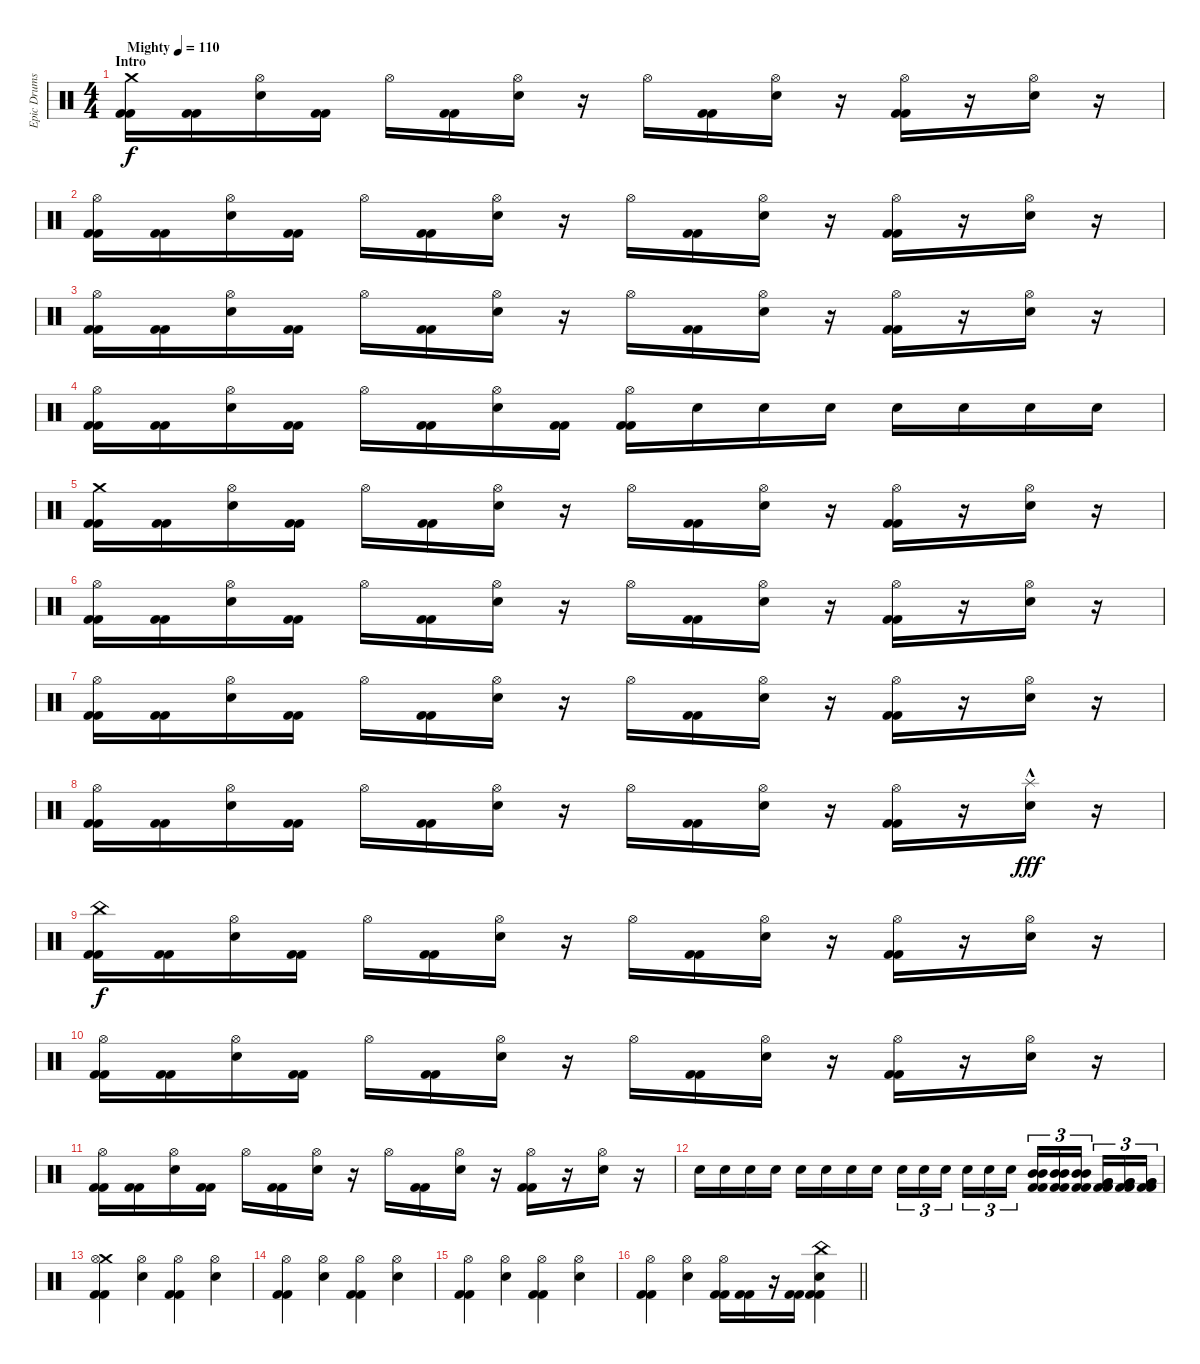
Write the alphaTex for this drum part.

\track ("Epic Drums" "Epic Drums") {instrument percussion}
\staff {score}
\articulation defaults
\ts (4 4)
\section ("" "Intro")
\tempo (110 "Mighty")
\clef neutral
\ks c
("Crash medium (hit)" "Kick (hit) 2" "Kick (hit) 2").16{dy f} ("Kick (hit) 2" "Kick (hit) 2").16 ("Hi-Hat (open)" "Electric Snare (hit)").16 ("Kick (hit) 2" "Kick (hit) 2").16 "Hi-Hat (open)".16 ("Kick (hit) 2" "Kick (hit) 2").16 ("Hi-Hat (open)" "Electric Snare (hit)").16 r.16 "Hi-Hat (open)".16 ("Kick (hit) 2" "Kick (hit) 2").16 ("Hi-Hat (open)" "Electric Snare (hit)").16 r.16 ("Hi-Hat (open)" "Kick (hit) 2" "Kick (hit) 2").16 r.16 ("Hi-Hat (open)" "Electric Snare (hit)").16 r.16 |
("Hi-Hat (open)" "Kick (hit) 2" "Kick (hit) 2").16 ("Kick (hit) 2" "Kick (hit) 2").16 ("Hi-Hat (open)" "Electric Snare (hit)").16 ("Kick (hit) 2" "Kick (hit) 2").16 "Hi-Hat (open)".16 ("Kick (hit) 2" "Kick (hit) 2").16 ("Hi-Hat (open)" "Electric Snare (hit)").16 r.16 "Hi-Hat (open)".16 ("Kick (hit) 2" "Kick (hit) 2").16 ("Hi-Hat (open)" "Electric Snare (hit)").16 r.16 ("Hi-Hat (open)" "Kick (hit) 2" "Kick (hit) 2").16 r.16 ("Hi-Hat (open)" "Electric Snare (hit)").16 r.16 |
("Hi-Hat (open)" "Kick (hit) 2" "Kick (hit) 2").16 ("Kick (hit) 2" "Kick (hit) 2").16 ("Hi-Hat (open)" "Electric Snare (hit)").16 ("Kick (hit) 2" "Kick (hit) 2").16 "Hi-Hat (open)".16 ("Kick (hit) 2" "Kick (hit) 2").16 ("Hi-Hat (open)" "Electric Snare (hit)").16 r.16 "Hi-Hat (open)".16 ("Kick (hit) 2" "Kick (hit) 2").16 ("Hi-Hat (open)" "Electric Snare (hit)").16 r.16 ("Hi-Hat (open)" "Kick (hit) 2" "Kick (hit) 2").16 r.16 ("Hi-Hat (open)" "Electric Snare (hit)").16 r.16 |
("Hi-Hat (open)" "Kick (hit) 2" "Kick (hit) 2").16 ("Kick (hit) 2" "Kick (hit) 2").16 ("Hi-Hat (open)" "Electric Snare (hit)").16 ("Kick (hit) 2" "Kick (hit) 2").16 "Hi-Hat (open)".16 ("Kick (hit) 2" "Kick (hit) 2").16 ("Hi-Hat (open)" "Electric Snare (hit)").16 ("Kick (hit) 2" "Kick (hit) 2").16 ("Hi-Hat (open)" "Kick (hit) 2" "Kick (hit) 2").16 "Electric Snare (hit)".16 "Electric Snare (hit)".16 "Electric Snare (hit)".16 "Electric Snare (hit)".16 "Electric Snare (hit)".16 "Electric Snare (hit)".16 "Electric Snare (hit)".16 |
("Crash medium (hit)" "Kick (hit) 2" "Kick (hit) 2").16 ("Kick (hit) 2" "Kick (hit) 2").16 ("Hi-Hat (open)" "Electric Snare (hit)").16 ("Kick (hit) 2" "Kick (hit) 2").16 "Hi-Hat (open)".16 ("Kick (hit) 2" "Kick (hit) 2").16 ("Hi-Hat (open)" "Electric Snare (hit)").16 r.16 "Hi-Hat (open)".16 ("Kick (hit) 2" "Kick (hit) 2").16 ("Hi-Hat (open)" "Electric Snare (hit)").16 r.16 ("Hi-Hat (open)" "Kick (hit) 2" "Kick (hit) 2").16 r.16 ("Hi-Hat (open)" "Electric Snare (hit)").16 r.16 |
("Hi-Hat (open)" "Kick (hit) 2" "Kick (hit) 2").16 ("Kick (hit) 2" "Kick (hit) 2").16 ("Hi-Hat (open)" "Electric Snare (hit)").16 ("Kick (hit) 2" "Kick (hit) 2").16 "Hi-Hat (open)".16 ("Kick (hit) 2" "Kick (hit) 2").16 ("Hi-Hat (open)" "Electric Snare (hit)").16 r.16 "Hi-Hat (open)".16 ("Kick (hit) 2" "Kick (hit) 2").16 ("Hi-Hat (open)" "Electric Snare (hit)").16 r.16 ("Hi-Hat (open)" "Kick (hit) 2" "Kick (hit) 2").16 r.16 ("Hi-Hat (open)" "Electric Snare (hit)").16 r.16 |
("Hi-Hat (open)" "Kick (hit) 2" "Kick (hit) 2").16 ("Kick (hit) 2" "Kick (hit) 2").16 ("Hi-Hat (open)" "Electric Snare (hit)").16 ("Kick (hit) 2" "Kick (hit) 2").16 "Hi-Hat (open)".16 ("Kick (hit) 2" "Kick (hit) 2").16 ("Hi-Hat (open)" "Electric Snare (hit)").16 r.16 "Hi-Hat (open)".16 ("Kick (hit) 2" "Kick (hit) 2").16 ("Hi-Hat (open)" "Electric Snare (hit)").16 r.16 ("Hi-Hat (open)" "Kick (hit) 2" "Kick (hit) 2").16 r.16 ("Hi-Hat (open)" "Electric Snare (hit)").16 r.16 |
("Hi-Hat (open)" "Kick (hit) 2" "Kick (hit) 2").16 ("Kick (hit) 2" "Kick (hit) 2").16 ("Hi-Hat (open)" "Electric Snare (hit)").16 ("Kick (hit) 2" "Kick (hit) 2").16 "Hi-Hat (open)".16 ("Kick (hit) 2" "Kick (hit) 2").16 ("Hi-Hat (open)" "Electric Snare (hit)").16 r.16 "Hi-Hat (open)".16 ("Kick (hit) 2" "Kick (hit) 2").16 ("Hi-Hat (open)" "Electric Snare (hit)").16 r.16 ("Hi-Hat (open)" "Kick (hit) 2" "Kick (hit) 2").16 r.16 ("Splash (hit)"{hac} "Electric Snare (hit)").16{dy fff} r.16 |
("China (hit)" "Kick (hit) 2" "Kick (hit) 2").16{dy f} ("Kick (hit) 2" "Kick (hit) 2").16 ("Hi-Hat (open)" "Electric Snare (hit)").16 ("Kick (hit) 2" "Kick (hit) 2").16 "Hi-Hat (open)".16 ("Kick (hit) 2" "Kick (hit) 2").16 ("Hi-Hat (open)" "Electric Snare (hit)").16 r.16 "Hi-Hat (open)".16 ("Kick (hit) 2" "Kick (hit) 2").16 ("Hi-Hat (open)" "Electric Snare (hit)").16 r.16 ("Hi-Hat (open)" "Kick (hit) 2" "Kick (hit) 2").16 r.16 ("Hi-Hat (open)" "Electric Snare (hit)").16 r.16 |
("Hi-Hat (open)" "Kick (hit) 2" "Kick (hit) 2").16 ("Kick (hit) 2" "Kick (hit) 2").16 ("Hi-Hat (open)" "Electric Snare (hit)").16 ("Kick (hit) 2" "Kick (hit) 2").16 "Hi-Hat (open)".16 ("Kick (hit) 2" "Kick (hit) 2").16 ("Hi-Hat (open)" "Electric Snare (hit)").16 r.16 "Hi-Hat (open)".16 ("Kick (hit) 2" "Kick (hit) 2").16 ("Hi-Hat (open)" "Electric Snare (hit)").16 r.16 ("Hi-Hat (open)" "Kick (hit) 2" "Kick (hit) 2").16 r.16 ("Hi-Hat (open)" "Electric Snare (hit)").16 r.16 |
("Hi-Hat (open)" "Kick (hit) 2" "Kick (hit) 2").16 ("Kick (hit) 2" "Kick (hit) 2").16 ("Hi-Hat (open)" "Electric Snare (hit)").16 ("Kick (hit) 2" "Kick (hit) 2").16 "Hi-Hat (open)".16 ("Kick (hit) 2" "Kick (hit) 2").16 ("Hi-Hat (open)" "Electric Snare (hit)").16 r.16 "Hi-Hat (open)".16 ("Kick (hit) 2" "Kick (hit) 2").16 ("Hi-Hat (open)" "Electric Snare (hit)").16 r.16 ("Hi-Hat (open)" "Kick (hit) 2" "Kick (hit) 2").16 r.16 ("Hi-Hat (open)" "Electric Snare (hit)").16 r.16 |
"Electric Snare (hit)".16 "Electric Snare (hit)".16 "Electric Snare (hit)".16 "Electric Snare (hit)".16 "Electric Snare (hit)".16 "Electric Snare (hit)".16 "Electric Snare (hit)".16 "Electric Snare (hit)".16 "Electric Snare (hit)".16{tu (3 2)} "Electric Snare (hit)".16{tu (3 2)} "Electric Snare (hit)".16{tu (3 2) beam splitsecondary} "Electric Snare (hit)".16{tu (3 2)} "Electric Snare (hit)".16{tu (3 2)} "Electric Snare (hit)".16{tu (3 2)} ("Mid Tom (hit)" "Mid Tom (hit)" "Kick (hit) 2" "Kick (hit) 2").16{tu (3 2)} ("Mid Tom (hit)" "Mid Tom (hit)" "Kick (hit) 2" "Kick (hit) 2").16{tu (3 2)} ("Mid Tom (hit)" "Mid Tom (hit)" "Kick (hit) 2" "Kick (hit) 2").16{tu (3 2) beam splitsecondary} ("Very Low Tom (hit)" "Very Low Tom (hit)" "Kick (hit) 2" "Kick (hit) 2").16{tu (3 2)} ("Very Low Tom (hit)" "Very Low Tom (hit)" "Kick (hit) 2" "Kick (hit) 2").16{tu (3 2)} ("Very Low Tom (hit)" "Very Low Tom (hit)" "Kick (hit) 2" "Kick (hit) 2").16{tu (3 2)} |
("Crash medium (hit)" "Hi-Hat (open)" "Kick (hit) 2" "Kick (hit) 2").4 ("Hi-Hat (open)" "Electric Snare (hit)").4 ("Hi-Hat (open)" "Kick (hit) 2" "Kick (hit) 2").4 ("Hi-Hat (open)" "Electric Snare (hit)").4 |
("Hi-Hat (open)" "Kick (hit) 2" "Kick (hit) 2").4 ("Hi-Hat (open)" "Electric Snare (hit)").4 ("Hi-Hat (open)" "Kick (hit) 2" "Kick (hit) 2").4 ("Hi-Hat (open)" "Electric Snare (hit)").4 |
("Hi-Hat (open)" "Kick (hit) 2" "Kick (hit) 2").4 ("Hi-Hat (open)" "Electric Snare (hit)").4 ("Hi-Hat (open)" "Kick (hit) 2" "Kick (hit) 2").4 ("Hi-Hat (open)" "Electric Snare (hit)").4 |
\barLineRight lightlight
("Hi-Hat (open)" "Kick (hit) 2" "Kick (hit) 2").4 ("Hi-Hat (open)" "Electric Snare (hit)").4 ("Hi-Hat (open)" "Kick (hit) 2" "Kick (hit) 2").16 ("Kick (hit) 2" "Kick (hit) 2").16 r.16 ("Kick (hit) 2" "Kick (hit) 2").16 ("China (hit)" "Electric Snare (hit)" "Kick (hit) 2" "Kick (hit) 2").4
